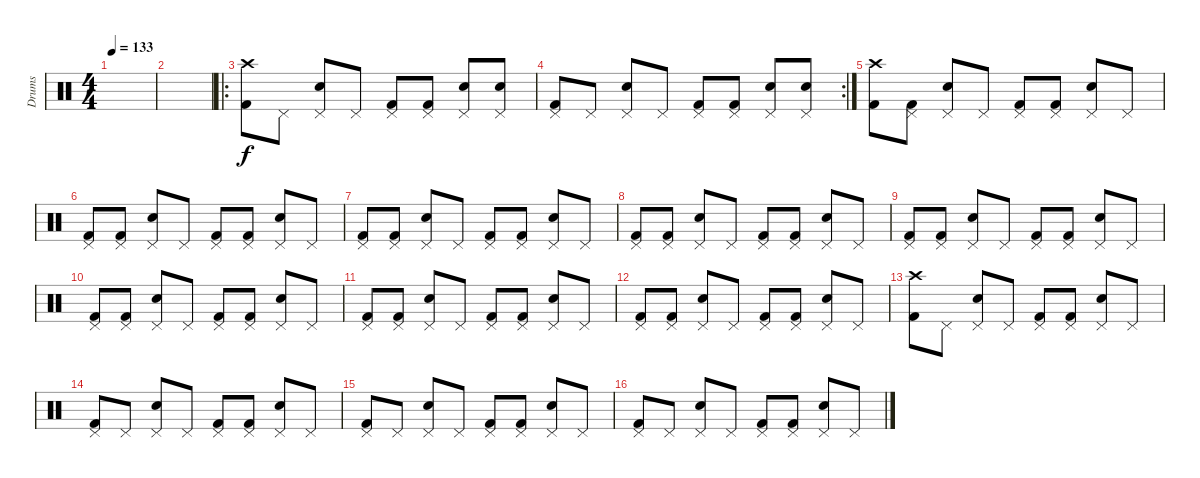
\track ("Drums" "Drums") {instrument percussion}
\staff {score}
\articulation defaults
\ts (4 4)
\tempo 133
\clef neutral
\ks c
|
|
\ro
("Crash high (hit)" "Kick (hit) 2").8 "Pedal Hi-Hat (hit)".8 ("Pedal Hi-Hat (hit)" "Snare (hit) 2").8 "Pedal Hi-Hat (hit)".8 ("Pedal Hi-Hat (hit)" "Kick (hit) 2").8 ("Pedal Hi-Hat (hit)" "Kick (hit) 2").8 ("Pedal Hi-Hat (hit)" "Snare (hit) 2").8 ("Pedal Hi-Hat (hit)" "Snare (hit) 2").8 |
\rc 2
("Pedal Hi-Hat (hit)" "Kick (hit) 2").8 "Pedal Hi-Hat (hit)".8 ("Pedal Hi-Hat (hit)" "Snare (hit) 2").8 "Pedal Hi-Hat (hit)".8 ("Pedal Hi-Hat (hit)" "Kick (hit) 2").8 ("Pedal Hi-Hat (hit)" "Kick (hit) 2").8 ("Pedal Hi-Hat (hit)" "Snare (hit) 2").8 ("Pedal Hi-Hat (hit)" "Snare (hit) 2").8 |
("Crash high (hit)" "Kick (hit) 2").8 ("Pedal Hi-Hat (hit)" "Kick (hit) 2").8 ("Pedal Hi-Hat (hit)" "Snare (hit) 2").8 "Pedal Hi-Hat (hit)".8 ("Pedal Hi-Hat (hit)" "Kick (hit) 2").8 ("Pedal Hi-Hat (hit)" "Kick (hit) 2").8 ("Pedal Hi-Hat (hit)" "Snare (hit) 2").8 "Pedal Hi-Hat (hit)".8 |
("Pedal Hi-Hat (hit)" "Kick (hit) 2").8 ("Pedal Hi-Hat (hit)" "Kick (hit) 2").8 ("Pedal Hi-Hat (hit)" "Snare (hit) 2").8 "Pedal Hi-Hat (hit)".8 ("Pedal Hi-Hat (hit)" "Kick (hit) 2").8 ("Pedal Hi-Hat (hit)" "Kick (hit) 2").8 ("Pedal Hi-Hat (hit)" "Snare (hit) 2").8 "Pedal Hi-Hat (hit)".8 |
("Pedal Hi-Hat (hit)" "Kick (hit) 2").8 ("Pedal Hi-Hat (hit)" "Kick (hit) 2").8 ("Pedal Hi-Hat (hit)" "Snare (hit) 2").8 "Pedal Hi-Hat (hit)".8 ("Pedal Hi-Hat (hit)" "Kick (hit) 2").8 ("Pedal Hi-Hat (hit)" "Kick (hit) 2").8 ("Pedal Hi-Hat (hit)" "Snare (hit) 2").8 "Pedal Hi-Hat (hit)".8 |
("Pedal Hi-Hat (hit)" "Kick (hit) 2").8 ("Pedal Hi-Hat (hit)" "Kick (hit) 2").8 ("Pedal Hi-Hat (hit)" "Snare (hit) 2").8 "Pedal Hi-Hat (hit)".8 ("Pedal Hi-Hat (hit)" "Kick (hit) 2").8 ("Pedal Hi-Hat (hit)" "Kick (hit) 2").8 ("Pedal Hi-Hat (hit)" "Snare (hit) 2").8 "Pedal Hi-Hat (hit)".8 |
("Pedal Hi-Hat (hit)" "Kick (hit) 2").8 ("Pedal Hi-Hat (hit)" "Kick (hit) 2").8 ("Pedal Hi-Hat (hit)" "Snare (hit) 2").8 "Pedal Hi-Hat (hit)".8 ("Pedal Hi-Hat (hit)" "Kick (hit) 2").8 ("Pedal Hi-Hat (hit)" "Kick (hit) 2").8 ("Pedal Hi-Hat (hit)" "Snare (hit) 2").8 "Pedal Hi-Hat (hit)".8 |
("Pedal Hi-Hat (hit)" "Kick (hit) 2").8 ("Pedal Hi-Hat (hit)" "Kick (hit) 2").8 ("Pedal Hi-Hat (hit)" "Snare (hit) 2").8 "Pedal Hi-Hat (hit)".8 ("Pedal Hi-Hat (hit)" "Kick (hit) 2").8 ("Pedal Hi-Hat (hit)" "Kick (hit) 2").8 ("Pedal Hi-Hat (hit)" "Snare (hit) 2").8 "Pedal Hi-Hat (hit)".8 |
("Pedal Hi-Hat (hit)" "Kick (hit) 2").8 ("Pedal Hi-Hat (hit)" "Kick (hit) 2").8 ("Pedal Hi-Hat (hit)" "Snare (hit) 2").8 "Pedal Hi-Hat (hit)".8 ("Pedal Hi-Hat (hit)" "Kick (hit) 2").8 ("Pedal Hi-Hat (hit)" "Kick (hit) 2").8 ("Pedal Hi-Hat (hit)" "Snare (hit) 2").8 "Pedal Hi-Hat (hit)".8 |
("Pedal Hi-Hat (hit)" "Kick (hit) 2").8 ("Pedal Hi-Hat (hit)" "Kick (hit) 2").8 ("Pedal Hi-Hat (hit)" "Snare (hit) 2").8 "Pedal Hi-Hat (hit)".8 ("Pedal Hi-Hat (hit)" "Kick (hit) 2").8 ("Pedal Hi-Hat (hit)" "Kick (hit) 2").8 ("Pedal Hi-Hat (hit)" "Snare (hit) 2").8 "Pedal Hi-Hat (hit)".8 |
("Crash high (hit)" "Kick (hit) 2").8 "Pedal Hi-Hat (hit)".8 ("Pedal Hi-Hat (hit)" "Snare (hit) 2").8 "Pedal Hi-Hat (hit)".8 ("Pedal Hi-Hat (hit)" "Kick (hit) 2").8 ("Pedal Hi-Hat (hit)" "Kick (hit) 2").8 ("Pedal Hi-Hat (hit)" "Snare (hit) 2").8 "Pedal Hi-Hat (hit)".8 |
("Pedal Hi-Hat (hit)" "Kick (hit) 2").8 "Pedal Hi-Hat (hit)".8 ("Pedal Hi-Hat (hit)" "Snare (hit) 2").8 "Pedal Hi-Hat (hit)".8 ("Pedal Hi-Hat (hit)" "Kick (hit) 2").8 ("Pedal Hi-Hat (hit)" "Kick (hit) 2").8 ("Pedal Hi-Hat (hit)" "Snare (hit) 2").8 "Pedal Hi-Hat (hit)".8 |
("Pedal Hi-Hat (hit)" "Kick (hit) 2").8 "Pedal Hi-Hat (hit)".8 ("Pedal Hi-Hat (hit)" "Snare (hit) 2").8 "Pedal Hi-Hat (hit)".8 ("Pedal Hi-Hat (hit)" "Kick (hit) 2").8 ("Pedal Hi-Hat (hit)" "Kick (hit) 2").8 ("Pedal Hi-Hat (hit)" "Snare (hit) 2").8 "Pedal Hi-Hat (hit)".8 |
("Pedal Hi-Hat (hit)" "Kick (hit) 2").8 "Pedal Hi-Hat (hit)".8 ("Pedal Hi-Hat (hit)" "Snare (hit) 2").8 "Pedal Hi-Hat (hit)".8 ("Pedal Hi-Hat (hit)" "Kick (hit) 2").8 ("Pedal Hi-Hat (hit)" "Kick (hit) 2").8 ("Pedal Hi-Hat (hit)" "Snare (hit) 2").8 "Pedal Hi-Hat (hit)".8
